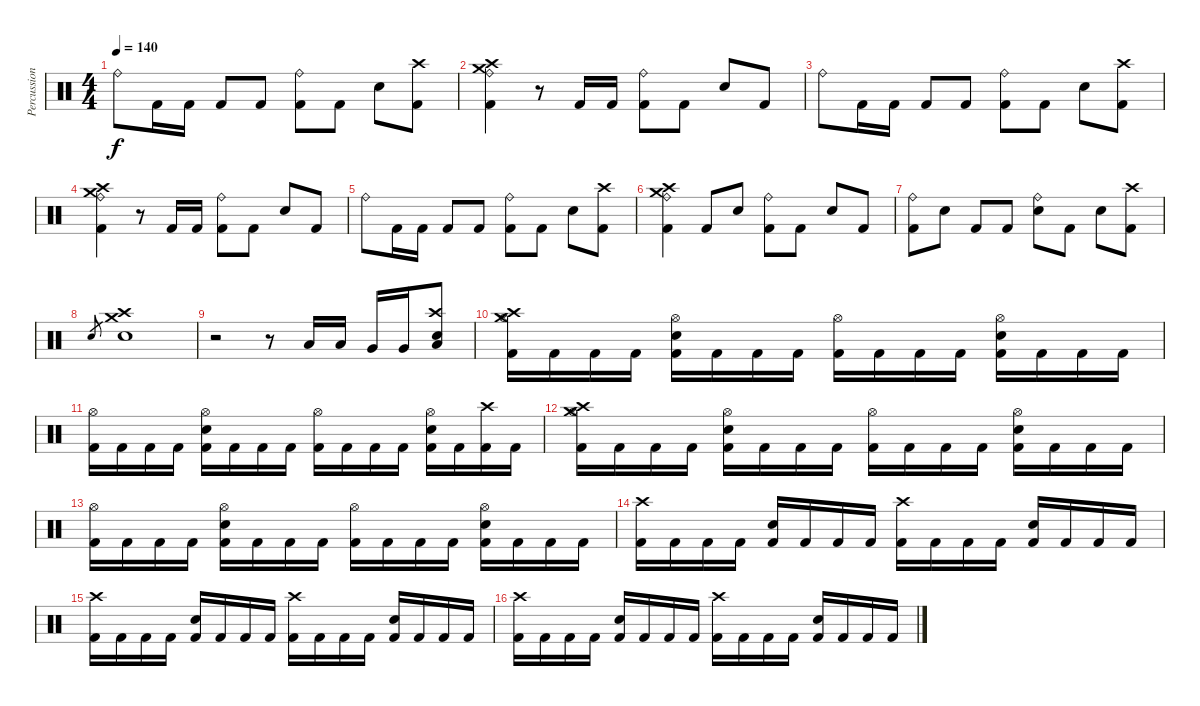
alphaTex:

\track ("Percussion" "Percussion") {instrument percussion}
\staff {score}
\articulation defaults
\ts (4 4)
\tempo 140
\clef neutral
\ks c "Ride (bell)".8{dy f} "Kick (hit) 2".16 "Kick (hit) 2".16 "Kick (hit) 2".8 "Kick (hit) 2".8
("Kick (hit) 2" "Ride (bell)").8 "Kick (hit) 2".8 "Electric Snare (hit)".8 ("Crash high (hit)" "Kick (hit) 2").8 |
("Crash medium (hit)" "Crash high (hit)" "Kick (hit) 2" "Ride (bell)").4 r.8 "Kick (hit) 2".16 "Kick (hit) 2".16 ("Kick (hit) 2" "Ride (bell)").8 "Kick (hit) 2".8 "Electric Snare (hit)".8 "Kick (hit) 2".8 |
"Ride (bell)".8 "Kick (hit) 2".16 "Kick (hit) 2".16 "Kick (hit) 2".8 "Kick (hit) 2".8 ("Kick (hit) 2" "Ride (bell)").8 "Kick (hit) 2".8 "Electric Snare (hit)".8 ("Crash high (hit)" "Kick (hit) 2").8 |
("Crash medium (hit)" "Crash high (hit)" "Kick (hit) 2" "Ride (bell)").4 r.8 "Kick (hit) 2".16 "Kick (hit) 2".16 ("Kick (hit) 2" "Ride (bell)").8 "Kick (hit) 2".8 "Electric Snare (hit)".8 "Kick (hit) 2".8 |
"Ride (bell)".8 "Kick (hit) 2".16 "Kick (hit) 2".16 "Kick (hit) 2".8 "Kick (hit) 2".8 ("Kick (hit) 2" "Ride (bell)").8 "Kick (hit) 2".8 "Electric Snare (hit)".8 ("Crash high (hit)" "Kick (hit) 2").8 |
("Crash medium (hit)" "Crash high (hit)" "Kick (hit) 2" "Ride (bell)").4 "Kick (hit) 2".8 "Electric Snare (hit)".8 ("Kick (hit) 2" "Ride (bell)").8 "Kick (hit) 2".8 "Electric Snare (hit)".8 "Kick (hit) 2".8 |
("Kick (hit) 2" "Ride (bell)").8 "Electric Snare (hit)".8 "Kick (hit) 2".8 "Kick (hit) 2".8 ("Electric Snare (hit)" "Ride (bell)").8 "Kick (hit) 2".8 "Electric Snare (hit)".8 ("Crash high (hit)" "Kick (hit) 2").8 |
"Electric Snare (hit)".8{gr} ("Crash medium (hit)" "Crash high (hit)" "Electric Snare (hit)").1 |
r.2 r.8 "Low Tom (hit)".16 "Low Tom (hit)".16 "Very Low Tom (hit)".16 "Very Low Tom (hit)".16 ("Crash high (hit)" "Low Floor Tom (hit)" "Electric Snare (hit)").8 |
("Crash medium (hit)" "Crash high (hit)" "Kick (hit) 2" "Hi-Hat (open)").16 "Kick (hit) 2".16 "Kick (hit) 2".16 "Kick (hit) 2".16 ("Kick (hit) 2" "Electric Snare (hit)" "Hi-Hat (open)").16 "Kick (hit) 2".16 "Kick (hit) 2".16 "Kick (hit) 2".16 ("Kick (hit) 2" "Hi-Hat (open)").16 "Kick (hit) 2".16 "Kick (hit) 2".16 "Kick (hit) 2".16 ("Kick (hit) 2" "Electric Snare (hit)" "Hi-Hat (open)").16 "Kick (hit) 2".16 "Kick (hit) 2".16 "Kick (hit) 2".16 |
("Kick (hit) 2" "Hi-Hat (open)").16 "Kick (hit) 2".16 "Kick (hit) 2".16 "Kick (hit) 2".16 ("Kick (hit) 2" "Electric Snare (hit)" "Hi-Hat (open)").16 "Kick (hit) 2".16 "Kick (hit) 2".16 "Kick (hit) 2".16 ("Kick (hit) 2" "Hi-Hat (open)").16 "Kick (hit) 2".16 "Kick (hit) 2".16 "Kick (hit) 2".16 ("Kick (hit) 2" "Electric Snare (hit)" "Hi-Hat (open)").16 "Kick (hit) 2".16 ("Crash high (hit)" "Kick (hit) 2").16 "Kick (hit) 2".16 |
("Crash medium (hit)" "Crash high (hit)" "Kick (hit) 2" "Hi-Hat (open)").16 "Kick (hit) 2".16 "Kick (hit) 2".16 "Kick (hit) 2".16 ("Kick (hit) 2" "Electric Snare (hit)" "Hi-Hat (open)").16 "Kick (hit) 2".16 "Kick (hit) 2".16 "Kick (hit) 2".16 ("Kick (hit) 2" "Hi-Hat (open)").16 "Kick (hit) 2".16 "Kick (hit) 2".16 "Kick (hit) 2".16 ("Kick (hit) 2" "Electric Snare (hit)" "Hi-Hat (open)").16 "Kick (hit) 2".16 "Kick (hit) 2".16 "Kick (hit) 2".16 |
("Kick (hit) 2" "Hi-Hat (open)").16 "Kick (hit) 2".16 "Kick (hit) 2".16 "Kick (hit) 2".16 ("Kick (hit) 2" "Electric Snare (hit)" "Hi-Hat (open)").16 "Kick (hit) 2".16 "Kick (hit) 2".16 "Kick (hit) 2".16 ("Kick (hit) 2" "Hi-Hat (open)").16 "Kick (hit) 2".16 "Kick (hit) 2".16 "Kick (hit) 2".16 ("Kick (hit) 2" "Electric Snare (hit)" "Hi-Hat (open)").16 "Kick (hit) 2".16 "Kick (hit) 2".16 "Kick (hit) 2".16 |
("Kick (hit) 2" "Crash high (hit)").16 "Kick (hit) 2".16 "Kick (hit) 2".16 "Kick (hit) 2".16 ("Kick (hit) 2" "Electric Snare (hit)").16 "Kick (hit) 2".16 "Kick (hit) 2".16 "Kick (hit) 2".16 ("Kick (hit) 2" "Crash high (hit)").16 "Kick (hit) 2".16 "Kick (hit) 2".16 "Kick (hit) 2".16 ("Kick (hit) 2" "Electric Snare (hit)").16 "Kick (hit) 2".16 "Kick (hit) 2".16 "Kick (hit) 2".16 |
("Kick (hit) 2" "Crash high (hit)").16 "Kick (hit) 2".16 "Kick (hit) 2".16 "Kick (hit) 2".16 ("Kick (hit) 2" "Electric Snare (hit)").16 "Kick (hit) 2".16 "Kick (hit) 2".16 "Kick (hit) 2".16 ("Kick (hit) 2" "Crash high (hit)").16 "Kick (hit) 2".16 "Kick (hit) 2".16 "Kick (hit) 2".16 ("Kick (hit) 2" "Electric Snare (hit)").16 "Kick (hit) 2".16 "Kick (hit) 2".16 "Kick (hit) 2".16 |
("Kick (hit) 2" "Crash high (hit)").16 "Kick (hit) 2".16 "Kick (hit) 2".16 "Kick (hit) 2".16 ("Kick (hit) 2" "Electric Snare (hit)").16 "Kick (hit) 2".16 "Kick (hit) 2".16 "Kick (hit) 2".16 ("Kick (hit) 2" "Crash high (hit)").16 "Kick (hit) 2".16 "Kick (hit) 2".16 "Kick (hit) 2".16 ("Kick (hit) 2" "Electric Snare (hit)").16 "Kick (hit) 2".16 "Kick (hit) 2".16 "Kick (hit) 2".16
